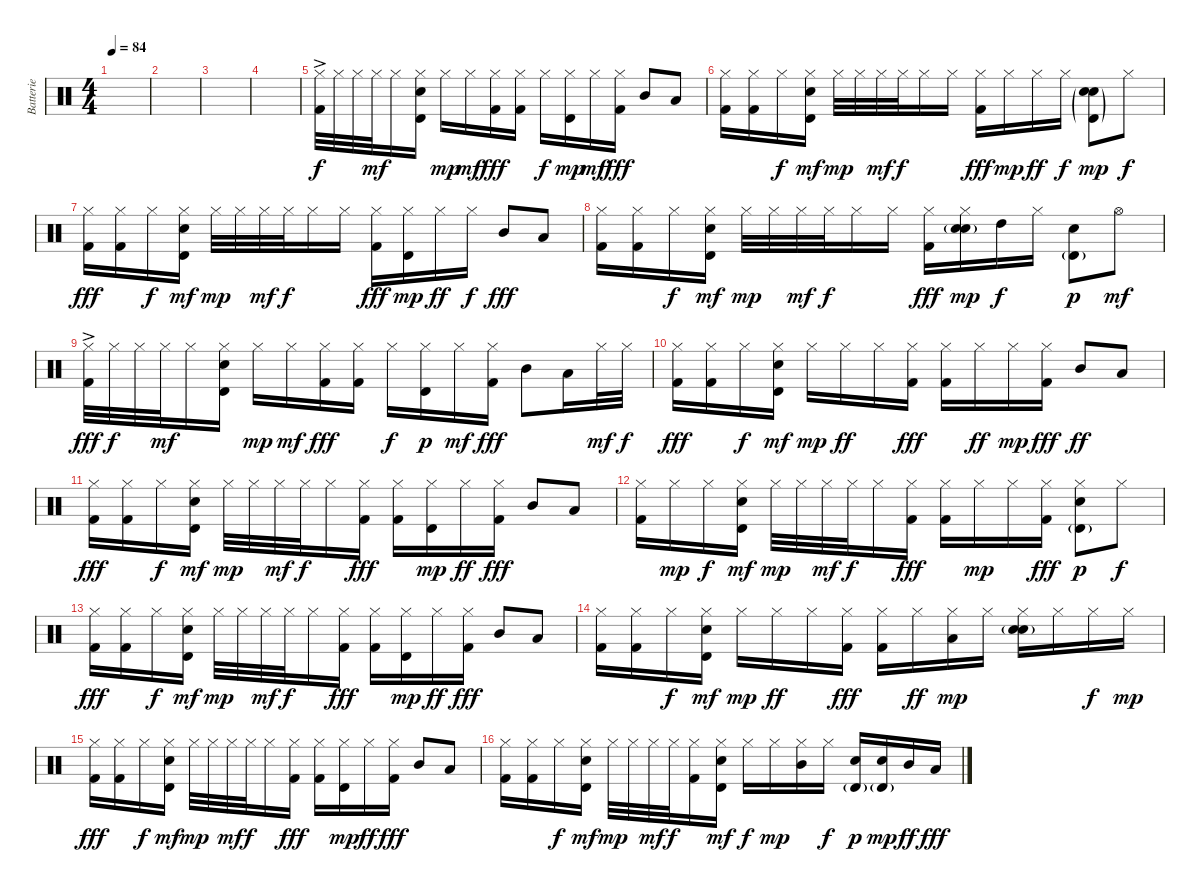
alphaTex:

\track ("Batterie" "Batterie") {instrument percussion}
\staff {score}
\articulation defaults
\ts (4 4)
\tempo 84
\clef neutral
\ks c
|
|
|
|
("Hi-Hat (closed)"{ac} "Kick (hit) 2").32 "Hi-Hat (closed)".32{dy f} "Hi-Hat (closed)".32 "Hi-Hat (closed)".32{dy mf} "Hi-Hat (closed)".16 ("Hi-Hat (closed)" "Electric Snare (hit)" "Timbale high (hit)").16 "Hi-Hat (closed)".16{dy mp} "Hi-Hat (closed)".16{dy mf} ("Hi-Hat (closed)" "Kick (hit) 2").16{dy fff} ("Hi-Hat (closed)" "Kick (hit) 2").16 "Hi-Hat (closed)".16{dy f} ("Hi-Hat (closed)" "Timbale high (hit)").16{dy mp} "Hi-Hat (closed)".16{dy mf} ("Hi-Hat (closed)" "Kick (hit) 2").16{dy fff} "Mid Tom (hit)".8 "Low Tom (hit)".8 |
("Hi-Hat (closed)" "Kick (hit) 2").16 ("Hi-Hat (closed)" "Kick (hit) 2").16 "Hi-Hat (closed)".16{dy f} ("Hi-Hat (closed)" "Electric Snare (hit)" "Timbale high (hit)").16{dy mf} "Hi-Hat (closed)".32{dy mp} "Hi-Hat (closed)".32 "Hi-Hat (closed)".32{dy mf} "Hi-Hat (closed)".32{dy f} "Hi-Hat (closed)".16 "Hi-Hat (closed)".16 ("Hi-Hat (closed)" "Kick (hit) 2").16{dy fff} "Hi-Hat (closed)".16{dy mp} "Hi-Hat (closed)".16{dy ff} "Hi-Hat (closed)".16{dy f} ("Electric Snare (hit)" "Snare (hit) 2"{g} "Timbale high (hit)"{g}).8{dy mp} "Hi-Hat (closed)".8{dy f} |
("Hi-Hat (closed)" "Kick (hit) 2").16{dy fff} ("Hi-Hat (closed)" "Kick (hit) 2").16 "Hi-Hat (closed)".16{dy f} ("Hi-Hat (closed)" "Electric Snare (hit)" "Timbale high (hit)").16{dy mf} "Hi-Hat (closed)".32{dy mp} "Hi-Hat (closed)".32 "Hi-Hat (closed)".32{dy mf} "Hi-Hat (closed)".32{dy f} "Hi-Hat (closed)".16 "Hi-Hat (closed)".16 ("Hi-Hat (closed)" "Kick (hit) 2").16{dy fff} ("Hi-Hat (closed)" "Timbale high (hit)").16{dy mp} "Hi-Hat (closed)".16{dy ff} "Hi-Hat (closed)".16{dy f} "Mid Tom (hit)".8{dy fff} "Low Tom (hit)".8 |
("Hi-Hat (closed)" "Kick (hit) 2").16 ("Hi-Hat (closed)" "Kick (hit) 2").16 "Hi-Hat (closed)".16{dy f} ("Hi-Hat (closed)" "Electric Snare (hit)" "Timbale high (hit)").16{dy mf} "Hi-Hat (closed)".32{dy mp} "Hi-Hat (closed)".32 "Hi-Hat (closed)".32{dy mf} "Hi-Hat (closed)".32{dy f} "Hi-Hat (closed)".16 "Hi-Hat (closed)".16 ("Hi-Hat (closed)" "Kick (hit) 2").16{dy fff} ("Hi-Hat (closed)" "Electric Snare (hit)" "Snare (hit) 2"{g}).16{dy mp} "High Tom (hit)".16{dy f} "Hi-Hat (closed)".16 ("Electric Snare (hit)" "Timbale high (hit)"{g}).8{dy p} "Hi-Hat (open)".8{dy mf} |
("Hi-Hat (closed)"{ac} "Kick (hit) 2").32{dy fff} "Hi-Hat (closed)".32{dy f} "Hi-Hat (closed)".32 "Hi-Hat (closed)".32{dy mf} "Hi-Hat (closed)".16 ("Hi-Hat (closed)" "Electric Snare (hit)" "Timbale high (hit)").16 "Hi-Hat (closed)".16{dy mp} "Hi-Hat (closed)".16{dy mf} ("Hi-Hat (closed)" "Kick (hit) 2").16{dy fff} ("Hi-Hat (closed)" "Kick (hit) 2").16 "Hi-Hat (closed)".16{dy f} ("Hi-Hat (closed)" "Timbale high (hit)").16{dy p} "Hi-Hat (closed)".16{dy mf} ("Hi-Hat (closed)" "Kick (hit) 2").16{dy fff} "Mid Tom (hit)".8 "Low Tom (hit)".16 "Hi-Hat (closed)".32{dy mf} "Hi-Hat (closed)".32{dy f} |
("Hi-Hat (closed)" "Kick (hit) 2").16{dy fff} ("Hi-Hat (closed)" "Kick (hit) 2").16 "Hi-Hat (closed)".16{dy f} ("Hi-Hat (closed)" "Electric Snare (hit)" "Timbale high (hit)").16{dy mf} "Hi-Hat (closed)".16{dy mp} "Hi-Hat (closed)".16{dy ff} "Hi-Hat (closed)".16 ("Hi-Hat (closed)" "Kick (hit) 2").16{dy fff} ("Hi-Hat (closed)" "Kick (hit) 2").16 "Hi-Hat (closed)".16{dy ff} "Hi-Hat (closed)".16{dy mp} ("Hi-Hat (closed)" "Kick (hit) 2").16{dy fff} "Mid Tom (hit)".8{dy ff} "Low Tom (hit)".8 |
("Hi-Hat (closed)" "Kick (hit) 2").16{dy fff} ("Hi-Hat (closed)" "Kick (hit) 2").16 "Hi-Hat (closed)".16{dy f} ("Hi-Hat (closed)" "Electric Snare (hit)" "Timbale high (hit)").16{dy mf} "Hi-Hat (closed)".32{dy mp} "Hi-Hat (closed)".32 "Hi-Hat (closed)".32{dy mf} "Hi-Hat (closed)".32{dy f} "Hi-Hat (closed)".16 ("Hi-Hat (closed)" "Kick (hit) 2").16{dy fff} ("Hi-Hat (closed)" "Kick (hit) 2").16 ("Hi-Hat (closed)" "Timbale high (hit)").16{dy mp} "Hi-Hat (closed)".16{dy ff} ("Hi-Hat (closed)" "Kick (hit) 2").16{dy fff} "Mid Tom (hit)".8 "Low Tom (hit)".8 |
("Hi-Hat (closed)" "Kick (hit) 2").16 "Hi-Hat (closed)".16{dy mp} "Hi-Hat (closed)".16{dy f} ("Hi-Hat (closed)" "Electric Snare (hit)" "Timbale high (hit)").16{dy mf} "Hi-Hat (closed)".32{dy mp} "Hi-Hat (closed)".32 "Hi-Hat (closed)".32{dy mf} "Hi-Hat (closed)".32{dy f} "Hi-Hat (closed)".16 ("Hi-Hat (closed)" "Kick (hit) 2").16{dy fff} ("Hi-Hat (closed)" "Kick (hit) 2").16 "Hi-Hat (closed)".16{dy mp} "Hi-Hat (closed)".16 ("Hi-Hat (closed)" "Kick (hit) 2").16{dy fff} ("Hi-Hat (closed)" "Electric Snare (hit)" "Timbale high (hit)"{g}).8{dy p} "Hi-Hat (closed)".8{dy f} |
("Hi-Hat (closed)" "Kick (hit) 2").16{dy fff} ("Hi-Hat (closed)" "Kick (hit) 2").16 "Hi-Hat (closed)".16{dy f} ("Hi-Hat (closed)" "Electric Snare (hit)" "Timbale high (hit)").16{dy mf} "Hi-Hat (closed)".32{dy mp} "Hi-Hat (closed)".32 "Hi-Hat (closed)".32{dy mf} "Hi-Hat (closed)".32{dy f} "Hi-Hat (closed)".16 ("Hi-Hat (closed)" "Kick (hit) 2").16{dy fff} ("Hi-Hat (closed)" "Kick (hit) 2").16 ("Hi-Hat (closed)" "Timbale high (hit)").16{dy mp} "Hi-Hat (closed)".16{dy ff} ("Hi-Hat (closed)" "Kick (hit) 2").16{dy fff} "Mid Tom (hit)".8 "Low Tom (hit)".8 |
("Hi-Hat (closed)" "Kick (hit) 2").16 ("Hi-Hat (closed)" "Kick (hit) 2").16 "Hi-Hat (closed)".16{dy f} ("Hi-Hat (closed)" "Electric Snare (hit)" "Timbale high (hit)").16{dy mf} "Hi-Hat (closed)".16{dy mp} "Hi-Hat (closed)".16{dy ff} "Hi-Hat (closed)".16 ("Hi-Hat (closed)" "Kick (hit) 2").16{dy fff} ("Hi-Hat (closed)" "Kick (hit) 2").16 "Hi-Hat (closed)".16{dy ff} ("Hi-Hat (closed)" "Low Tom (hit)").16{dy mp} "Hi-Hat (closed)".16 ("Hi-Hat (closed)" "Electric Snare (hit)" "Snare (hit) 2"{g}).16 "Hi-Hat (closed)".16 "Hi-Hat (closed)".16{dy f} "Hi-Hat (closed)".16{dy mp} |
("Hi-Hat (closed)" "Kick (hit) 2").16{dy fff} ("Hi-Hat (closed)" "Kick (hit) 2").16 "Hi-Hat (closed)".16{dy f} ("Hi-Hat (closed)" "Electric Snare (hit)" "Timbale high (hit)").16{dy mf} "Hi-Hat (closed)".32{dy mp} "Hi-Hat (closed)".32 "Hi-Hat (closed)".32{dy mf} "Hi-Hat (closed)".32{dy f} "Hi-Hat (closed)".16 ("Hi-Hat (closed)" "Kick (hit) 2").16{dy fff} ("Hi-Hat (closed)" "Kick (hit) 2").16 ("Hi-Hat (closed)" "Timbale high (hit)").16{dy mp} "Hi-Hat (closed)".16{dy ff} ("Hi-Hat (closed)" "Kick (hit) 2").16{dy fff} "Mid Tom (hit)".8 "Low Tom (hit)".8 |
("Hi-Hat (closed)" "Kick (hit) 2").16 ("Hi-Hat (closed)" "Kick (hit) 2").16 "Hi-Hat (closed)".16{dy f} ("Hi-Hat (closed)" "Electric Snare (hit)" "Timbale high (hit)").16{dy mf} "Hi-Hat (closed)".32{dy mp} "Hi-Hat (closed)".32 "Hi-Hat (closed)".32{dy mf} "Hi-Hat (closed)".32{dy f} ("Hi-Hat (closed)" "Kick (hit) 2").16 ("Hi-Hat (closed)" "Electric Snare (hit)" "Timbale high (hit)").16{dy mf} "Hi-Hat (closed)".16{dy f} "Hi-Hat (closed)".16{dy mp} ("Hi-Hat (closed)" "Mid Tom (hit)").16 "Hi-Hat (closed)".16{dy f} ("Electric Snare (hit)" "Timbale high (hit)"{g}).16{dy p} ("Electric Snare (hit)" "Timbale high (hit)"{g}).16{dy mp} "Mid Tom (hit)".16{dy ff} "Low Tom (hit)".16{dy fff}
